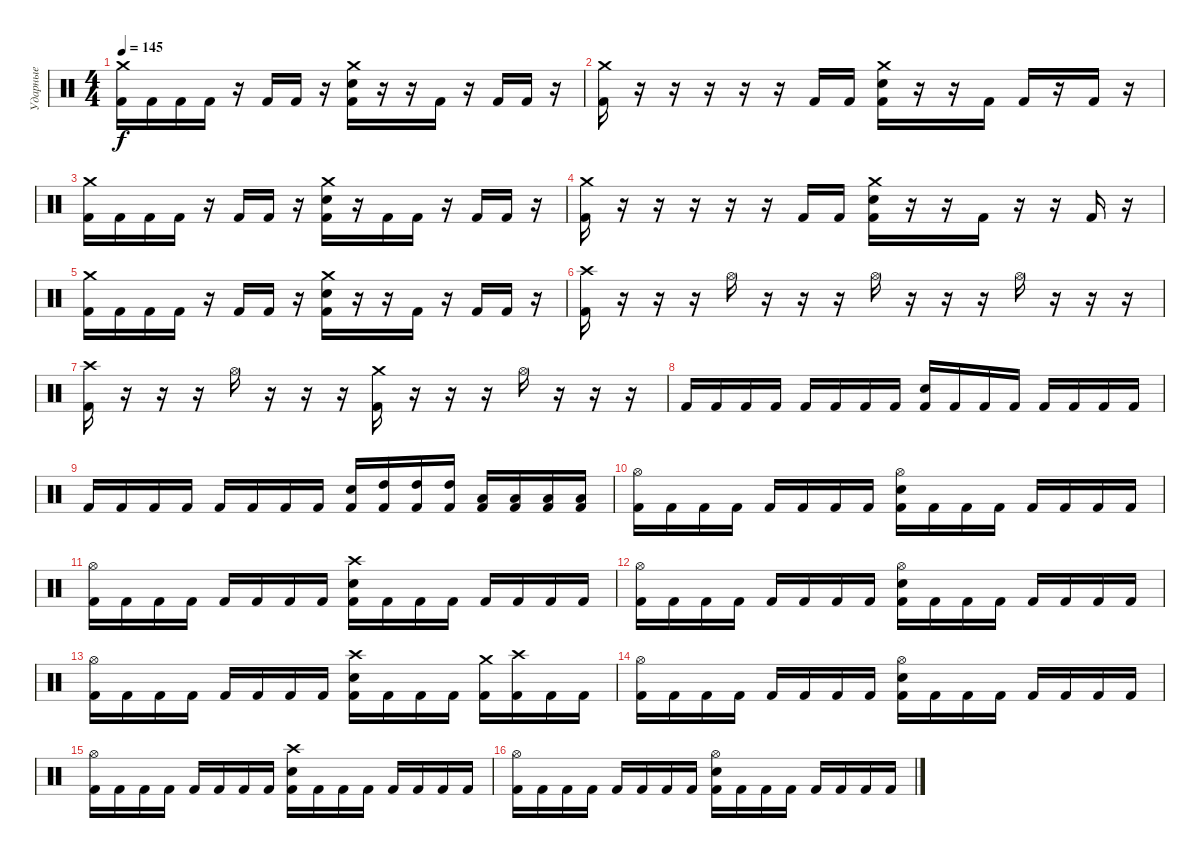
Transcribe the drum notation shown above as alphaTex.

\track ("Ударные" "Ударные") {instrument percussion}
\staff {score}
\articulation defaults
\ts (4 4)
\tempo 145
\clef neutral
\ks c
("Crash medium (hit)" "Kick (hit) 2").16{dy f} "Kick (hit) 2".16 "Kick (hit) 2".16 "Kick (hit) 2".16 r.16 "Kick (hit) 2".16 "Kick (hit) 2".16 r.16 ("Crash medium (hit)" "Electric Snare (hit)" "Kick (hit) 2").16 r.16 r.16 "Kick (hit) 2".16 r.16 "Kick (hit) 2".16 "Kick (hit) 2".16 r.16 |
("Crash medium (hit)" "Kick (hit) 2").16 r.16 r.16 r.16 r.16 r.16 "Kick (hit) 2".16 "Kick (hit) 2".16 ("Crash medium (hit)" "Electric Snare (hit)" "Kick (hit) 2").16 r.16 r.16 "Kick (hit) 2".16 "Kick (hit) 2".16 r.16 "Kick (hit) 2".16 r.16 |
("Crash medium (hit)" "Kick (hit) 2").16 "Kick (hit) 2".16 "Kick (hit) 2".16 "Kick (hit) 2".16 r.16 "Kick (hit) 2".16 "Kick (hit) 2".16 r.16 ("Crash medium (hit)" "Electric Snare (hit)" "Kick (hit) 2").16 r.16 "Kick (hit) 2".16 "Kick (hit) 2".16 r.16 "Kick (hit) 2".16 "Kick (hit) 2".16 r.16 |
("Crash medium (hit)" "Kick (hit) 2").16 r.16 r.16 r.16 r.16 r.16 "Kick (hit) 2".16 "Kick (hit) 2".16 ("Crash medium (hit)" "Electric Snare (hit)" "Kick (hit) 2").16 r.16 r.16 "Kick (hit) 2".16 r.16 r.16 "Kick (hit) 2".16 r.16 |
("Crash medium (hit)" "Kick (hit) 2").16 "Kick (hit) 2".16 "Kick (hit) 2".16 "Kick (hit) 2".16 r.16 "Kick (hit) 2".16 "Kick (hit) 2".16 r.16 ("Crash medium (hit)" "Electric Snare (hit)" "Kick (hit) 2").16 r.16 r.16 "Kick (hit) 2".16 r.16 "Kick (hit) 2".16 "Kick (hit) 2".16 r.16 |
("Crash high (hit)" "Kick (hit) 2").16 r.16 r.16 r.16 "Hi-Hat (open)".16 r.16 r.16 r.16 "Hi-Hat (open)".16 r.16 r.16 r.16 "Hi-Hat (open)".16 r.16 r.16 r.16 |
("Crash high (hit)" "Kick (hit) 2").16 r.16 r.16 r.16 "Hi-Hat (open)".16 r.16 r.16 r.16 ("Crash medium (hit)" "Kick (hit) 2").16 r.16 r.16 r.16 "Hi-Hat (open)".16 r.16 r.16 r.16 |
"Kick (hit) 2".16 "Kick (hit) 2".16 "Kick (hit) 2".16 "Kick (hit) 2".16 "Kick (hit) 2".16 "Kick (hit) 2".16 "Kick (hit) 2".16 "Kick (hit) 2".16 ("Electric Snare (hit)" "Kick (hit) 2").16 "Kick (hit) 2".16 "Kick (hit) 2".16 "Kick (hit) 2".16 "Kick (hit) 2".16 "Kick (hit) 2".16 "Kick (hit) 2".16 "Kick (hit) 2".16 |
"Kick (hit) 2".16 "Kick (hit) 2".16 "Kick (hit) 2".16 "Kick (hit) 2".16 "Kick (hit) 2".16 "Kick (hit) 2".16 "Kick (hit) 2".16 "Kick (hit) 2".16 ("Electric Snare (hit)" "Kick (hit) 2").16 ("High Tom (hit)" "Kick (hit) 2").16 ("High Tom (hit)" "Kick (hit) 2").16 ("High Tom (hit)" "Kick (hit) 2").16 ("Low Tom (hit)" "Kick (hit) 2").16 ("Low Tom (hit)" "Kick (hit) 2").16 ("Low Tom (hit)" "Kick (hit) 2").16 ("Low Tom (hit)" "Kick (hit) 2").16 |
("Hi-Hat (open)" "Kick (hit) 2").16 "Kick (hit) 2".16 "Kick (hit) 2".16 "Kick (hit) 2".16 "Kick (hit) 2".16 "Kick (hit) 2".16 "Kick (hit) 2".16 "Kick (hit) 2".16 ("Hi-Hat (open)" "Electric Snare (hit)" "Kick (hit) 2").16 "Kick (hit) 2".16 "Kick (hit) 2".16 "Kick (hit) 2".16 "Kick (hit) 2".16 "Kick (hit) 2".16 "Kick (hit) 2".16 "Kick (hit) 2".16 |
("Hi-Hat (open)" "Kick (hit) 2").16 "Kick (hit) 2".16 "Kick (hit) 2".16 "Kick (hit) 2".16 "Kick (hit) 2".16 "Kick (hit) 2".16 "Kick (hit) 2".16 "Kick (hit) 2".16 ("Crash high (hit)" "Electric Snare (hit)" "Kick (hit) 2").16 "Kick (hit) 2".16 "Kick (hit) 2".16 "Kick (hit) 2".16 "Kick (hit) 2".16 "Kick (hit) 2".16 "Kick (hit) 2".16 "Kick (hit) 2".16 |
("Hi-Hat (open)" "Kick (hit) 2").16 "Kick (hit) 2".16 "Kick (hit) 2".16 "Kick (hit) 2".16 "Kick (hit) 2".16 "Kick (hit) 2".16 "Kick (hit) 2".16 "Kick (hit) 2".16 ("Hi-Hat (open)" "Electric Snare (hit)" "Kick (hit) 2").16 "Kick (hit) 2".16 "Kick (hit) 2".16 "Kick (hit) 2".16 "Kick (hit) 2".16 "Kick (hit) 2".16 "Kick (hit) 2".16 "Kick (hit) 2".16 |
("Hi-Hat (open)" "Kick (hit) 2").16 "Kick (hit) 2".16 "Kick (hit) 2".16 "Kick (hit) 2".16 "Kick (hit) 2".16 "Kick (hit) 2".16 "Kick (hit) 2".16 "Kick (hit) 2".16 ("Crash high (hit)" "Electric Snare (hit)" "Kick (hit) 2").16 "Kick (hit) 2".16 "Kick (hit) 2".16 "Kick (hit) 2".16 ("Crash medium (hit)" "Kick (hit) 2").16 ("Crash high (hit)" "Kick (hit) 2").16 "Kick (hit) 2".16 "Kick (hit) 2".16 |
("Hi-Hat (open)" "Kick (hit) 2").16 "Kick (hit) 2".16 "Kick (hit) 2".16 "Kick (hit) 2".16 "Kick (hit) 2".16 "Kick (hit) 2".16 "Kick (hit) 2".16 "Kick (hit) 2".16 ("Hi-Hat (open)" "Electric Snare (hit)" "Kick (hit) 2").16 "Kick (hit) 2".16 "Kick (hit) 2".16 "Kick (hit) 2".16 "Kick (hit) 2".16 "Kick (hit) 2".16 "Kick (hit) 2".16 "Kick (hit) 2".16 |
("Hi-Hat (open)" "Kick (hit) 2").16 "Kick (hit) 2".16 "Kick (hit) 2".16 "Kick (hit) 2".16 "Kick (hit) 2".16 "Kick (hit) 2".16 "Kick (hit) 2".16 "Kick (hit) 2".16 ("Crash high (hit)" "Electric Snare (hit)" "Kick (hit) 2").16 "Kick (hit) 2".16 "Kick (hit) 2".16 "Kick (hit) 2".16 "Kick (hit) 2".16 "Kick (hit) 2".16 "Kick (hit) 2".16 "Kick (hit) 2".16 |
("Hi-Hat (open)" "Kick (hit) 2").16 "Kick (hit) 2".16 "Kick (hit) 2".16 "Kick (hit) 2".16 "Kick (hit) 2".16 "Kick (hit) 2".16 "Kick (hit) 2".16 "Kick (hit) 2".16 ("Hi-Hat (open)" "Electric Snare (hit)" "Kick (hit) 2").16 "Kick (hit) 2".16 "Kick (hit) 2".16 "Kick (hit) 2".16 "Kick (hit) 2".16 "Kick (hit) 2".16 "Kick (hit) 2".16 "Kick (hit) 2".16
